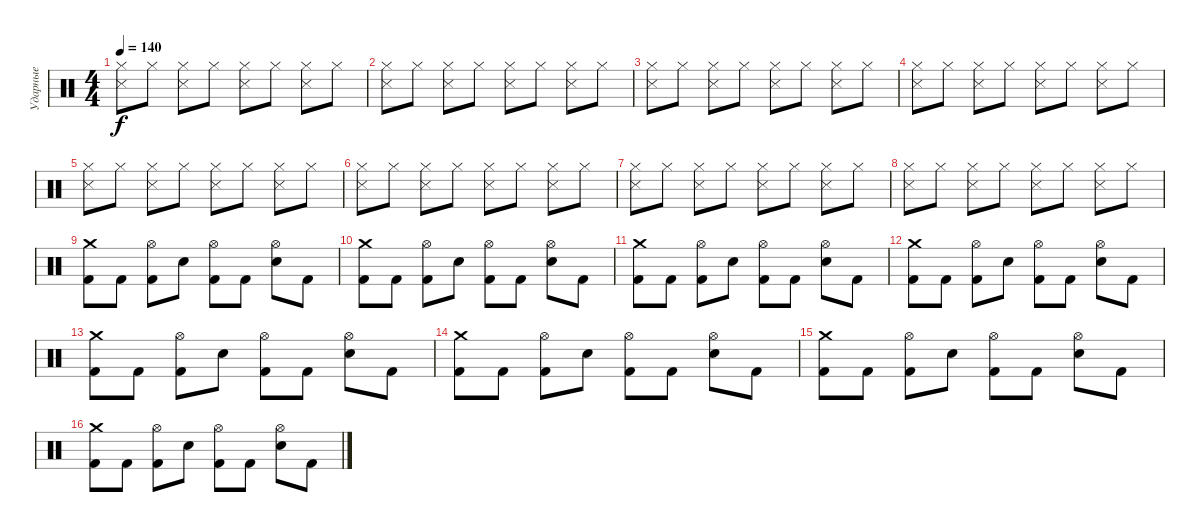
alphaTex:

\track ("Ударные" "Ударные") {instrument percussion}
\staff {score}
\articulation defaults
\ts (4 4)
\tempo 140
\clef neutral
\ks c
("Hi-Hat (closed)" "Snare (side stick) 3").8{dy f} "Hi-Hat (closed)".8 ("Hi-Hat (closed)" "Snare (side stick) 3").8 "Hi-Hat (closed)".8 ("Hi-Hat (closed)" "Snare (side stick) 3").8 "Hi-Hat (closed)".8 ("Hi-Hat (closed)" "Snare (side stick) 3").8 "Hi-Hat (closed)".8 |
("Hi-Hat (closed)" "Snare (side stick) 3").8 "Hi-Hat (closed)".8 ("Hi-Hat (closed)" "Snare (side stick) 3").8 "Hi-Hat (closed)".8 ("Hi-Hat (closed)" "Snare (side stick) 3").8 "Hi-Hat (closed)".8 ("Hi-Hat (closed)" "Snare (side stick) 3").8 "Hi-Hat (closed)".8 |
("Hi-Hat (closed)" "Snare (side stick) 3").8 "Hi-Hat (closed)".8 ("Hi-Hat (closed)" "Snare (side stick) 3").8 "Hi-Hat (closed)".8 ("Hi-Hat (closed)" "Snare (side stick) 3").8 "Hi-Hat (closed)".8 ("Hi-Hat (closed)" "Snare (side stick) 3").8 "Hi-Hat (closed)".8 |
("Hi-Hat (closed)" "Snare (side stick) 3").8 "Hi-Hat (closed)".8 ("Hi-Hat (closed)" "Snare (side stick) 3").8 "Hi-Hat (closed)".8 ("Hi-Hat (closed)" "Snare (side stick) 3").8 "Hi-Hat (closed)".8 ("Hi-Hat (closed)" "Snare (side stick) 3").8 "Hi-Hat (closed)".8 |
("Hi-Hat (closed)" "Snare (side stick) 3").8 "Hi-Hat (closed)".8 ("Hi-Hat (closed)" "Snare (side stick) 3").8 "Hi-Hat (closed)".8 ("Hi-Hat (closed)" "Snare (side stick) 3").8 "Hi-Hat (closed)".8 ("Hi-Hat (closed)" "Snare (side stick) 3").8 "Hi-Hat (closed)".8 |
("Hi-Hat (closed)" "Snare (side stick) 3").8 "Hi-Hat (closed)".8 ("Hi-Hat (closed)" "Snare (side stick) 3").8 "Hi-Hat (closed)".8 ("Hi-Hat (closed)" "Snare (side stick) 3").8 "Hi-Hat (closed)".8 ("Hi-Hat (closed)" "Snare (side stick) 3").8 "Hi-Hat (closed)".8 |
("Hi-Hat (closed)" "Snare (side stick) 3").8 "Hi-Hat (closed)".8 ("Hi-Hat (closed)" "Snare (side stick) 3").8 "Hi-Hat (closed)".8 ("Hi-Hat (closed)" "Snare (side stick) 3").8 "Hi-Hat (closed)".8 ("Hi-Hat (closed)" "Snare (side stick) 3").8 "Hi-Hat (closed)".8 |
("Hi-Hat (closed)" "Snare (side stick) 3").8 "Hi-Hat (closed)".8 ("Hi-Hat (closed)" "Snare (side stick) 3").8 "Hi-Hat (closed)".8 ("Hi-Hat (closed)" "Snare (side stick) 3").8 "Hi-Hat (closed)".8 ("Hi-Hat (closed)" "Snare (side stick) 3").8 "Hi-Hat (closed)".8 |
("Crash medium (hit)" "Kick (hit) 2").8 "Kick (hit) 2".8 ("Hi-Hat (open)" "Kick (hit) 2").8 "Electric Snare (hit)".8 ("Hi-Hat (open)" "Kick (hit) 2").8 "Kick (hit) 2".8 ("Hi-Hat (open)" "Electric Snare (hit)").8 "Kick (hit) 2".8 |
("Crash medium (hit)" "Kick (hit) 2").8 "Kick (hit) 2".8 ("Hi-Hat (open)" "Kick (hit) 2").8 "Electric Snare (hit)".8 ("Hi-Hat (open)" "Kick (hit) 2").8 "Kick (hit) 2".8 ("Hi-Hat (open)" "Electric Snare (hit)").8 "Kick (hit) 2".8 |
("Crash medium (hit)" "Kick (hit) 2").8 "Kick (hit) 2".8 ("Hi-Hat (open)" "Kick (hit) 2").8 "Electric Snare (hit)".8 ("Hi-Hat (open)" "Kick (hit) 2").8 "Kick (hit) 2".8 ("Hi-Hat (open)" "Electric Snare (hit)").8 "Kick (hit) 2".8 |
("Crash medium (hit)" "Kick (hit) 2").8 "Kick (hit) 2".8 ("Hi-Hat (open)" "Kick (hit) 2").8 "Electric Snare (hit)".8 ("Hi-Hat (open)" "Kick (hit) 2").8 "Kick (hit) 2".8 ("Hi-Hat (open)" "Electric Snare (hit)").8 "Kick (hit) 2".8 |
("Crash medium (hit)" "Kick (hit) 2").8 "Kick (hit) 2".8 ("Hi-Hat (open)" "Kick (hit) 2").8 "Electric Snare (hit)".8 ("Hi-Hat (open)" "Kick (hit) 2").8 "Kick (hit) 2".8 ("Hi-Hat (open)" "Electric Snare (hit)").8 "Kick (hit) 2".8 |
("Crash medium (hit)" "Kick (hit) 2").8 "Kick (hit) 2".8 ("Hi-Hat (open)" "Kick (hit) 2").8 "Electric Snare (hit)".8 ("Hi-Hat (open)" "Kick (hit) 2").8 "Kick (hit) 2".8 ("Hi-Hat (open)" "Electric Snare (hit)").8 "Kick (hit) 2".8 |
("Crash medium (hit)" "Kick (hit) 2").8 "Kick (hit) 2".8 ("Hi-Hat (open)" "Kick (hit) 2").8 "Electric Snare (hit)".8 ("Hi-Hat (open)" "Kick (hit) 2").8 "Kick (hit) 2".8 ("Hi-Hat (open)" "Electric Snare (hit)").8 "Kick (hit) 2".8 |
("Crash medium (hit)" "Kick (hit) 2").8 "Kick (hit) 2".8 ("Hi-Hat (open)" "Kick (hit) 2").8 "Electric Snare (hit)".8 ("Hi-Hat (open)" "Kick (hit) 2").8 "Kick (hit) 2".8 ("Hi-Hat (open)" "Electric Snare (hit)").8 "Kick (hit) 2".8
